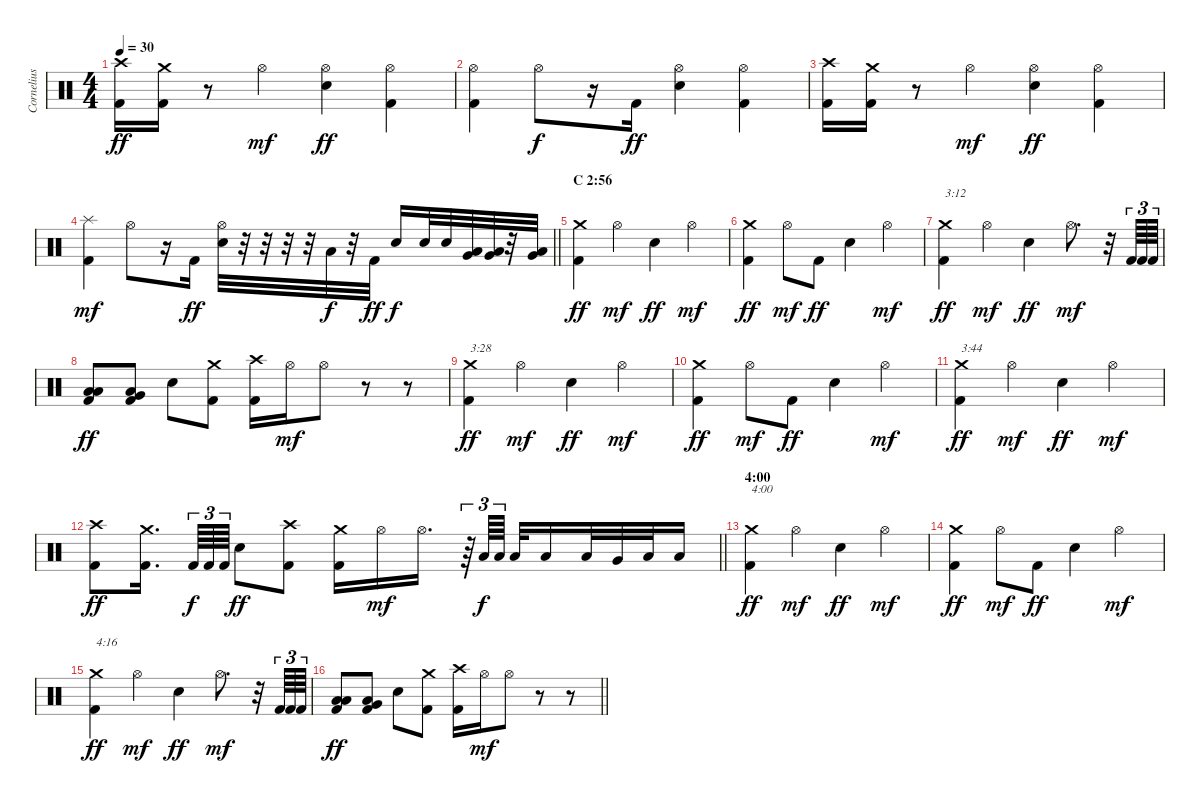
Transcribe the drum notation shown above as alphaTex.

\track ("Cornelius Althammer (Drums)" "Cornelius ") {instrument percussion}
\staff {score}
\articulation defaults
\ts (4 4)
\tempo 30
\clef neutral
\ks c
("Crash high (hit)" "Kick (hit) 2").16{dy ff} ("Crash medium (hit)" "Kick (hit) 2").16 r.8 "Hi-Hat (open)".4{dy mf} ("Hi-Hat (open)" "Electric Snare (hit)").4{dy ff} ("Hi-Hat (open)" "Kick (hit) 2").4 |
("Hi-Hat (open)" "Kick (hit) 2").4 "Hi-Hat (open)".8{dy f} r.16 "Kick (hit) 2".16{dy ff} ("Hi-Hat (open)" "Electric Snare (hit)").4 ("Hi-Hat (open)" "Kick (hit) 2").4 |
("Crash high (hit)" "Kick (hit) 2").16 ("Crash medium (hit)" "Kick (hit) 2").16 r.8 "Hi-Hat (open)".4{dy mf} ("Hi-Hat (open)" "Electric Snare (hit)").4{dy ff} ("Hi-Hat (open)" "Kick (hit) 2").4 |
\barLineRight lightlight
("Splash (hit)" "Kick (hit) 2").4{dy mf} "Hi-Hat (open)".8 r.16 "Kick (hit) 2".16{dy ff} ("Hi-Hat (open)" "Electric Snare (hit)").32 r.32 r.32 r.32 r.32 "Low Tom (hit)".32{dy f} r.32 "Kick (hit) 2".32{dy ff} "Electric Snare (hit)".16{dy f} "Electric Snare (hit)".32 "Electric Snare (hit)".32 ("Low Tom (hit)" "Very Low Tom (hit)").32 ("Low Tom (hit)" "Very Low Tom (hit)").32 r.32 ("Low Tom (hit)" "Very Low Tom (hit)").32 |
\section ("" "C 2:56")
("Crash medium (hit)" "Kick (hit) 2").4{dy ff} "Hi-Hat (open)".4{dy mf} "Electric Snare (hit)".4{dy ff} "Hi-Hat (open)".4{dy mf} |
("Crash medium (hit)" "Kick (hit) 2").4{dy ff} "Hi-Hat (open)".8{dy mf} "Kick (hit) 2".8{dy ff} "Electric Snare (hit)".4 "Hi-Hat (open)".4{dy mf} |
("Crash medium (hit)" "Kick (hit) 2").4{txt "3:12" dy ff} "Hi-Hat (open)".4{dy mf} "Electric Snare (hit)".4{dy ff} "Hi-Hat (open)".8{d dy mf} r.32 "Kick (hit) 2".64{tu (3 2)} "Kick (hit) 2".64{tu (3 2)} "Kick (hit) 2".64{tu (3 2)} |
("Low Tom (hit)" "Low Floor Tom (hit)" "Kick (hit) 2").8{dy ff} ("Low Tom (hit)" "Very Low Tom (hit)" "Kick (hit) 2").8 "Electric Snare (hit)".8 ("Crash medium (hit)" "Kick (hit) 2").8 ("Crash high (hit)" "Kick (hit) 2").16 "Hi-Hat (open)".16{dy mf} "Hi-Hat (open)".8 r.8 r.8 |
("Crash medium (hit)" "Kick (hit) 2").4{txt "3:28" dy ff} "Hi-Hat (open)".4{dy mf} "Electric Snare (hit)".4{dy ff} "Hi-Hat (open)".4{dy mf} |
("Crash medium (hit)" "Kick (hit) 2").4{dy ff} "Hi-Hat (open)".8{dy mf} "Kick (hit) 2".8{dy ff} "Electric Snare (hit)".4 "Hi-Hat (open)".4{dy mf} |
("Crash medium (hit)" "Kick (hit) 2").4{txt "3:44" dy ff} "Hi-Hat (open)".4{dy mf} "Electric Snare (hit)".4{dy ff} "Hi-Hat (open)".4{dy mf} |
\barLineRight lightlight
("Crash high (hit)" "Kick (hit) 2").8{dy ff} ("Crash medium (hit)" "Kick (hit) 2").16{d beam splitsecondary} "Kick (hit) 2".64{tu (3 2) dy f} "Kick (hit) 2".64{tu (3 2)} "Kick (hit) 2".64{tu (3 2)} "Electric Snare (hit)".8{dy ff} ("Crash high (hit)" "Kick (hit) 2").8 ("Crash medium (hit)" "Kick (hit) 2").16 "Hi-Hat (open)".16{dy mf} "Hi-Hat (open)".16{d} r.64{tu (3 2)} "Low Tom (hit)".64{tu (3 2) dy f} "Low Tom (hit)".64{tu (3 2)} "Low Tom (hit)".32 "Low Tom (hit)".16 "Low Tom (hit)".32 "Very Low Tom (hit)".32 "Low Floor Tom (hit)".32 "Low Floor Tom (hit)".16 |
\section ("" "4:00")
("Crash medium (hit)" "Kick (hit) 2").4{txt "4:00" dy ff} "Hi-Hat (open)".4{dy mf} "Electric Snare (hit)".4{dy ff} "Hi-Hat (open)".4{dy mf} |
("Crash medium (hit)" "Kick (hit) 2").4{dy ff} "Hi-Hat (open)".8{dy mf} "Kick (hit) 2".8{dy ff} "Electric Snare (hit)".4 "Hi-Hat (open)".4{dy mf} |
("Crash medium (hit)" "Kick (hit) 2").4{txt "4:16" dy ff} "Hi-Hat (open)".4{dy mf} "Electric Snare (hit)".4{dy ff} "Hi-Hat (open)".8{d dy mf} r.32 "Kick (hit) 2".64{tu (3 2)} "Kick (hit) 2".64{tu (3 2)} "Kick (hit) 2".64{tu (3 2)} |
\barLineRight lightlight
("Low Tom (hit)" "Low Floor Tom (hit)" "Kick (hit) 2").8{dy ff} ("Low Tom (hit)" "Very Low Tom (hit)" "Kick (hit) 2").8 "Electric Snare (hit)".8 ("Crash medium (hit)" "Kick (hit) 2").8 ("Crash high (hit)" "Kick (hit) 2").16 "Hi-Hat (open)".16{dy mf} "Hi-Hat (open)".8 r.8 r.8
